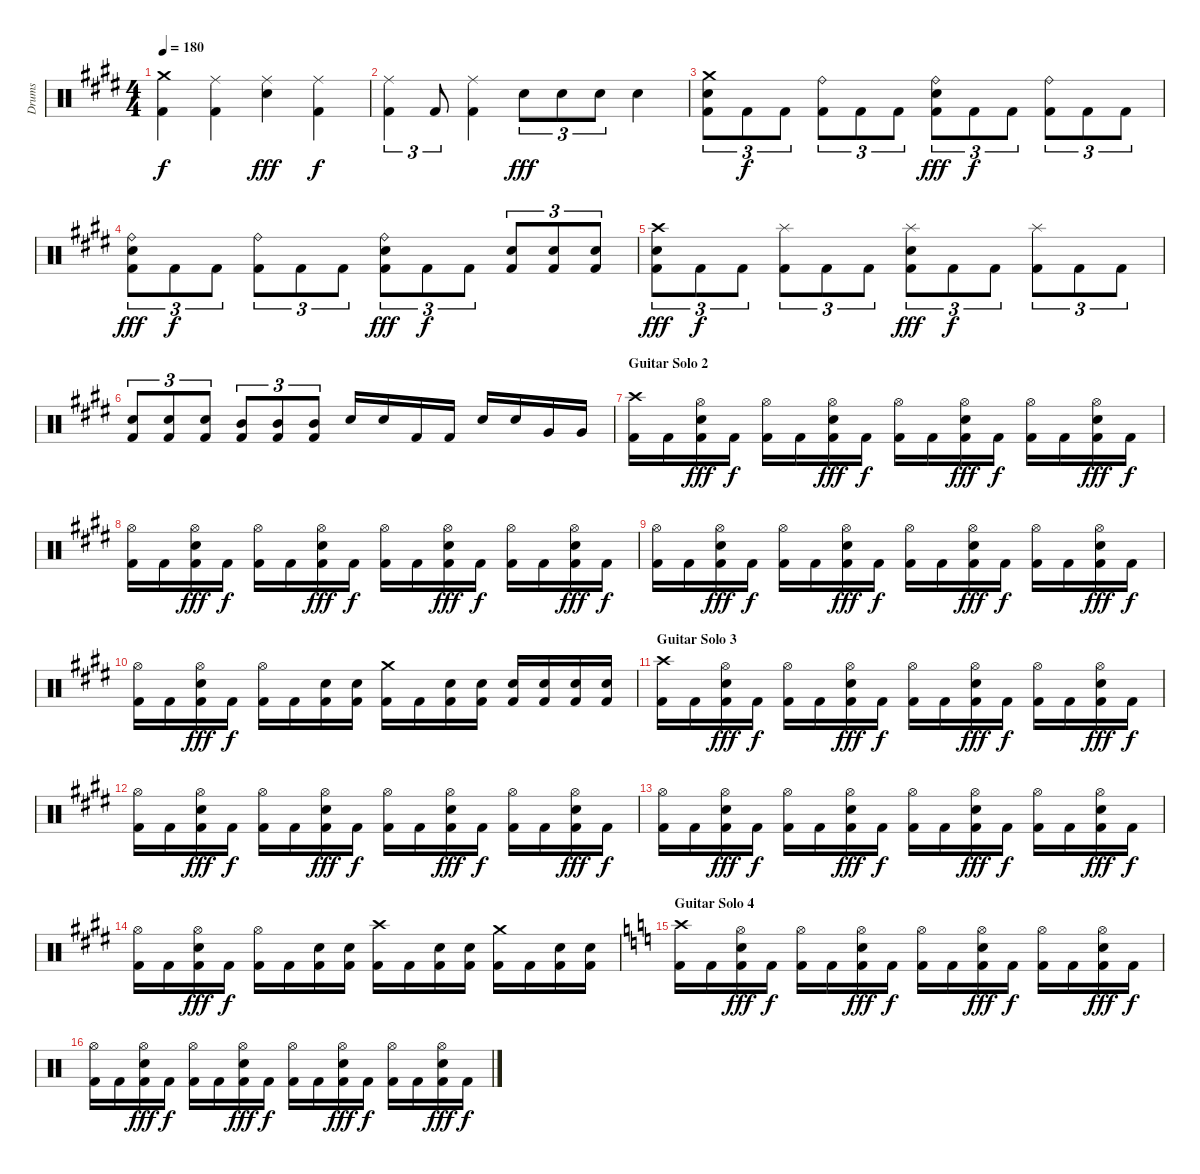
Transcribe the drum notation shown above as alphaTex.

\track ("Drums" "Drums") {instrument percussion}
\staff {score}
\articulation defaults
\ts (4 4)
\tempo 180
\clef neutral
\ks c#minor
("Crash medium (hit)" "Kick (hit) 2").4{dy f} ("Ride (middle)" "Kick (hit) 2").4 ("Ride (middle)" "Snare (hit) 2").4{dy fff} ("Ride (middle)" "Kick (hit) 2").4{dy f} |
("Ride (middle)" "Kick (hit) 2").4{tu (3 2)} "Kick (hit) 2".8{tu (3 2)} ("Ride (middle)" "Kick (hit) 2").4 "Snare (hit) 2".8{tu (3 2) dy fff} "Snare (hit) 2".8{tu (3 2)} "Snare (hit) 2".8{tu (3 2)} "Snare (hit) 2".4 |
("Crash medium (hit)" "Snare (hit) 2" "Kick (hit) 2").8{tu (3 2)} "Kick (hit) 2".8{tu (3 2) dy f} "Kick (hit) 2".8{tu (3 2)} ("Ride (bell)" "Kick (hit) 2").8{tu (3 2)} "Kick (hit) 2".8{tu (3 2)} "Kick (hit) 2".8{tu (3 2)} ("Ride (bell)" "Snare (hit) 2" "Kick (hit) 2").8{tu (3 2) dy fff} "Kick (hit) 2".8{tu (3 2) dy f} "Kick (hit) 2".8{tu (3 2)} ("Ride (bell)" "Kick (hit) 2").8{tu (3 2)} "Kick (hit) 2".8{tu (3 2)} "Kick (hit) 2".8{tu (3 2)} |
("Ride (bell)" "Snare (hit) 2" "Kick (hit) 2").8{tu (3 2) dy fff} "Kick (hit) 2".8{tu (3 2) dy f} "Kick (hit) 2".8{tu (3 2)} ("Ride (bell)" "Kick (hit) 2").8{tu (3 2)} "Kick (hit) 2".8{tu (3 2)} "Kick (hit) 2".8{tu (3 2)} ("Ride (bell)" "Snare (hit) 2" "Kick (hit) 2").8{tu (3 2) dy fff} "Kick (hit) 2".8{tu (3 2) dy f} "Kick (hit) 2".8{tu (3 2)} ("Snare (hit) 2" "Kick (hit) 2").8{tu (3 2)} ("Snare (hit) 2" "Kick (hit) 2").8{tu (3 2)} ("Snare (hit) 2" "Kick (hit) 2").8{tu (3 2)} |
("Crash high (hit)" "Snare (hit) 2" "Kick (hit) 2").8{tu (3 2) dy fff} "Kick (hit) 2".8{tu (3 2) dy f} "Kick (hit) 2".8{tu (3 2)} ("Splash (hit)" "Kick (hit) 2").8{tu (3 2)} "Kick (hit) 2".8{tu (3 2)} "Kick (hit) 2".8{tu (3 2)} ("Splash (hit)" "Snare (hit) 2" "Kick (hit) 2").8{tu (3 2) dy fff} "Kick (hit) 2".8{tu (3 2) dy f} "Kick (hit) 2".8{tu (3 2)} ("Splash (hit)" "Kick (hit) 2").8{tu (3 2)} "Kick (hit) 2".8{tu (3 2)} "Kick (hit) 2".8{tu (3 2)} |
("Snare (hit) 2" "Kick (hit) 2").8{tu (3 2)} ("Snare (hit) 2" "Kick (hit) 2").8{tu (3 2)} ("Snare (hit) 2" "Kick (hit) 2").8{tu (3 2)} ("Mid Tom (hit)" "Kick (hit) 2").8{tu (3 2)} ("Mid Tom (hit)" "Kick (hit) 2").8{tu (3 2)} ("Mid Tom (hit)" "Kick (hit) 2").8{tu (3 2)} "Snare (hit) 2".16 "Snare (hit) 2".16 "Kick (hit) 2".16 "Kick (hit) 2".16 "Snare (hit) 2".16 "Snare (hit) 2".16 "Very Low Tom (hit)".16 "Very Low Tom (hit)".16 |
\section ("" "Guitar Solo 2")
("Crash high (hit)" "Kick (hit) 2").16 "Kick (hit) 2".16 ("Hi-Hat (open)" "Snare (hit) 2" "Kick (hit) 2").16{dy fff} "Kick (hit) 2".16{dy f} ("Hi-Hat (open)" "Kick (hit) 2").16 "Kick (hit) 2".16 ("Hi-Hat (open)" "Snare (hit) 2" "Kick (hit) 2").16{dy fff} "Kick (hit) 2".16{dy f} ("Hi-Hat (open)" "Kick (hit) 2").16 "Kick (hit) 2".16 ("Hi-Hat (open)" "Snare (hit) 2" "Kick (hit) 2").16{dy fff} "Kick (hit) 2".16{dy f} ("Hi-Hat (open)" "Kick (hit) 2").16 "Kick (hit) 2".16 ("Hi-Hat (open)" "Snare (hit) 2" "Kick (hit) 2").16{dy fff} "Kick (hit) 2".16{dy f} |
("Hi-Hat (open)" "Kick (hit) 2").16 "Kick (hit) 2".16 ("Hi-Hat (open)" "Snare (hit) 2" "Kick (hit) 2").16{dy fff} "Kick (hit) 2".16{dy f} ("Hi-Hat (open)" "Kick (hit) 2").16 "Kick (hit) 2".16 ("Hi-Hat (open)" "Snare (hit) 2" "Kick (hit) 2").16{dy fff} "Kick (hit) 2".16{dy f} ("Hi-Hat (open)" "Kick (hit) 2").16 "Kick (hit) 2".16 ("Hi-Hat (open)" "Snare (hit) 2" "Kick (hit) 2").16{dy fff} "Kick (hit) 2".16{dy f} ("Hi-Hat (open)" "Kick (hit) 2").16 "Kick (hit) 2".16 ("Hi-Hat (open)" "Snare (hit) 2" "Kick (hit) 2").16{dy fff} "Kick (hit) 2".16{dy f} |
("Hi-Hat (open)" "Kick (hit) 2").16 "Kick (hit) 2".16 ("Hi-Hat (open)" "Snare (hit) 2" "Kick (hit) 2").16{dy fff} "Kick (hit) 2".16{dy f} ("Hi-Hat (open)" "Kick (hit) 2").16 "Kick (hit) 2".16 ("Hi-Hat (open)" "Snare (hit) 2" "Kick (hit) 2").16{dy fff} "Kick (hit) 2".16{dy f} ("Hi-Hat (open)" "Kick (hit) 2").16 "Kick (hit) 2".16 ("Hi-Hat (open)" "Snare (hit) 2" "Kick (hit) 2").16{dy fff} "Kick (hit) 2".16{dy f} ("Hi-Hat (open)" "Kick (hit) 2").16 "Kick (hit) 2".16 ("Hi-Hat (open)" "Snare (hit) 2" "Kick (hit) 2").16{dy fff} "Kick (hit) 2".16{dy f} |
("Hi-Hat (open)" "Kick (hit) 2").16 "Kick (hit) 2".16 ("Hi-Hat (open)" "Snare (hit) 2" "Kick (hit) 2").16{dy fff} "Kick (hit) 2".16{dy f} ("Hi-Hat (open)" "Kick (hit) 2").16 "Kick (hit) 2".16 ("Snare (hit) 2" "Kick (hit) 2").16 ("Snare (hit) 2" "Kick (hit) 2").16 ("Crash medium (hit)" "Kick (hit) 2").16 "Kick (hit) 2".16 ("Snare (hit) 2" "Kick (hit) 2").16 ("Snare (hit) 2" "Kick (hit) 2").16 ("Snare (hit) 2" "Kick (hit) 2").16 ("Snare (hit) 2" "Kick (hit) 2").16 ("Snare (hit) 2" "Kick (hit) 2").16 ("Snare (hit) 2" "Kick (hit) 2").16 |
\section ("" "Guitar Solo 3")
("Crash high (hit)" "Kick (hit) 2").16 "Kick (hit) 2".16 ("Hi-Hat (open)" "Snare (hit) 2" "Kick (hit) 2").16{dy fff} "Kick (hit) 2".16{dy f} ("Hi-Hat (open)" "Kick (hit) 2").16 "Kick (hit) 2".16 ("Hi-Hat (open)" "Snare (hit) 2" "Kick (hit) 2").16{dy fff} "Kick (hit) 2".16{dy f} ("Hi-Hat (open)" "Kick (hit) 2").16 "Kick (hit) 2".16 ("Hi-Hat (open)" "Snare (hit) 2" "Kick (hit) 2").16{dy fff} "Kick (hit) 2".16{dy f} ("Hi-Hat (open)" "Kick (hit) 2").16 "Kick (hit) 2".16 ("Hi-Hat (open)" "Snare (hit) 2" "Kick (hit) 2").16{dy fff} "Kick (hit) 2".16{dy f} |
("Hi-Hat (open)" "Kick (hit) 2").16 "Kick (hit) 2".16 ("Hi-Hat (open)" "Snare (hit) 2" "Kick (hit) 2").16{dy fff} "Kick (hit) 2".16{dy f} ("Hi-Hat (open)" "Kick (hit) 2").16 "Kick (hit) 2".16 ("Hi-Hat (open)" "Snare (hit) 2" "Kick (hit) 2").16{dy fff} "Kick (hit) 2".16{dy f} ("Hi-Hat (open)" "Kick (hit) 2").16 "Kick (hit) 2".16 ("Hi-Hat (open)" "Snare (hit) 2" "Kick (hit) 2").16{dy fff} "Kick (hit) 2".16{dy f} ("Hi-Hat (open)" "Kick (hit) 2").16 "Kick (hit) 2".16 ("Hi-Hat (open)" "Snare (hit) 2" "Kick (hit) 2").16{dy fff} "Kick (hit) 2".16{dy f} |
("Hi-Hat (open)" "Kick (hit) 2").16 "Kick (hit) 2".16 ("Hi-Hat (open)" "Snare (hit) 2" "Kick (hit) 2").16{dy fff} "Kick (hit) 2".16{dy f} ("Hi-Hat (open)" "Kick (hit) 2").16 "Kick (hit) 2".16 ("Hi-Hat (open)" "Snare (hit) 2" "Kick (hit) 2").16{dy fff} "Kick (hit) 2".16{dy f} ("Hi-Hat (open)" "Kick (hit) 2").16 "Kick (hit) 2".16 ("Hi-Hat (open)" "Snare (hit) 2" "Kick (hit) 2").16{dy fff} "Kick (hit) 2".16{dy f} ("Hi-Hat (open)" "Kick (hit) 2").16 "Kick (hit) 2".16 ("Hi-Hat (open)" "Snare (hit) 2" "Kick (hit) 2").16{dy fff} "Kick (hit) 2".16{dy f} |
("Hi-Hat (open)" "Kick (hit) 2").16 "Kick (hit) 2".16 ("Hi-Hat (open)" "Snare (hit) 2" "Kick (hit) 2").16{dy fff} "Kick (hit) 2".16{dy f} ("Hi-Hat (open)" "Kick (hit) 2").16 "Kick (hit) 2".16 ("Snare (hit) 2" "Kick (hit) 2").16 ("Snare (hit) 2" "Kick (hit) 2").16 ("Crash high (hit)" "Kick (hit) 2").16 "Kick (hit) 2".16 ("Snare (hit) 2" "Kick (hit) 2").16 ("Snare (hit) 2" "Kick (hit) 2").16 ("Crash medium (hit)" "Kick (hit) 2").16 "Kick (hit) 2".16 ("Snare (hit) 2" "Kick (hit) 2").16 ("Snare (hit) 2" "Kick (hit) 2").16 |
\section ("" "Guitar Solo 4")
\ks c
("Crash high (hit)" "Kick (hit) 2").16 "Kick (hit) 2".16 ("Hi-Hat (open)" "Snare (hit) 2" "Kick (hit) 2").16{dy fff} "Kick (hit) 2".16{dy f} ("Hi-Hat (open)" "Kick (hit) 2").16 "Kick (hit) 2".16 ("Hi-Hat (open)" "Snare (hit) 2" "Kick (hit) 2").16{dy fff} "Kick (hit) 2".16{dy f} ("Hi-Hat (open)" "Kick (hit) 2").16 "Kick (hit) 2".16 ("Hi-Hat (open)" "Snare (hit) 2" "Kick (hit) 2").16{dy fff} "Kick (hit) 2".16{dy f} ("Hi-Hat (open)" "Kick (hit) 2").16 "Kick (hit) 2".16 ("Hi-Hat (open)" "Snare (hit) 2" "Kick (hit) 2").16{dy fff} "Kick (hit) 2".16{dy f} |
("Hi-Hat (open)" "Kick (hit) 2").16 "Kick (hit) 2".16 ("Hi-Hat (open)" "Snare (hit) 2" "Kick (hit) 2").16{dy fff} "Kick (hit) 2".16{dy f} ("Hi-Hat (open)" "Kick (hit) 2").16 "Kick (hit) 2".16 ("Hi-Hat (open)" "Snare (hit) 2" "Kick (hit) 2").16{dy fff} "Kick (hit) 2".16{dy f} ("Hi-Hat (open)" "Kick (hit) 2").16 "Kick (hit) 2".16 ("Hi-Hat (open)" "Snare (hit) 2" "Kick (hit) 2").16{dy fff} "Kick (hit) 2".16{dy f} ("Hi-Hat (open)" "Kick (hit) 2").16 "Kick (hit) 2".16 ("Hi-Hat (open)" "Snare (hit) 2" "Kick (hit) 2").16{dy fff} "Kick (hit) 2".16{dy f}
